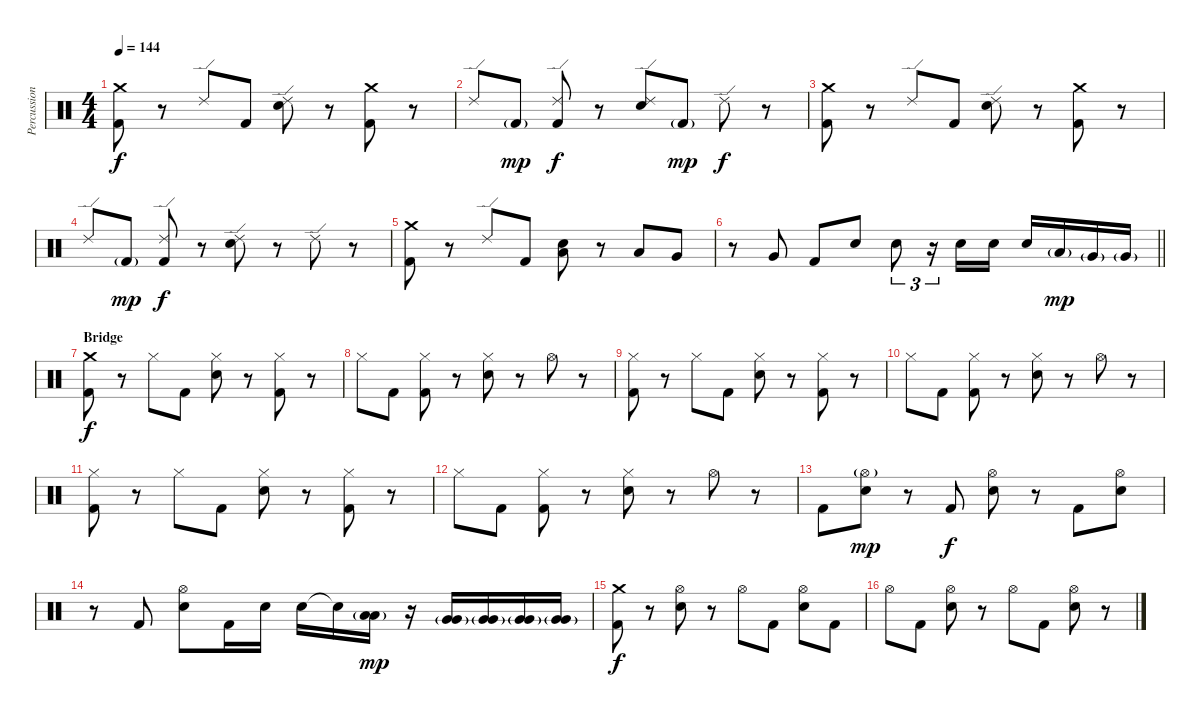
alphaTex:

\track ("Percussion" "Percussion") {instrument percussion}
\staff {score}
\articulation defaults
\ts (4 4)
\tempo 144
\clef neutral
\ks c
("Crash medium (hit)" "Kick (hit) 2").8{dy f} r.8 "Ride (edge) 2".8 "Kick (hit) 2".8 ("Ride (edge) 2" "Electric Snare (hit)").8 r.8 ("Crash medium (hit)" "Kick (hit) 2").8 r.8 |
"Ride (edge) 2".8 "Kick (hit) 2"{g}.8{dy mp} ("Ride (edge) 2" "Kick (hit) 2").8{dy f} r.8 ("Ride (edge) 2" "Electric Snare (hit)").8 "Kick (hit) 2"{g}.8{dy mp} "Ride (edge) 2".8{dy f} r.8 |
("Crash medium (hit)" "Kick (hit) 2").8 r.8 "Ride (edge) 2".8 "Kick (hit) 2".8 ("Ride (edge) 2" "Electric Snare (hit)").8 r.8 ("Crash medium (hit)" "Kick (hit) 2").8 r.8 |
"Ride (edge) 2".8 "Kick (hit) 2"{g}.8{dy mp} ("Ride (edge) 2" "Kick (hit) 2").8{dy f} r.8 ("Ride (edge) 2" "Electric Snare (hit)").8 r.8 "Ride (edge) 2".8 r.8 |
("Crash medium (hit)" "Kick (hit) 2").8 r.8 "Ride (edge) 2".8 "Kick (hit) 2".8 ("Low Floor Tom (hit)" "Electric Snare (hit)").8 r.8 "Low Tom (hit)".8 "Very Low Tom (hit)".8 |
\barLineRight lightlight
r.8 "Very Low Tom (hit)".8 "Kick (hit) 2".8 "Electric Snare (hit)".8 "Electric Snare (hit)".8{tu (3 2)} r.16{tu (3 2)} "Electric Snare (hit)".16 "Electric Snare (hit)".16 "Electric Snare (hit)".16 "Low Tom (hit)"{g}.16{dy mp} "Very Low Tom (hit)"{g}.16 "Very Low Tom (hit)"{g}.16 |
\section ("" "Bridge")
("Crash medium (hit)" "Kick (hit) 2").8{dy f} r.8 "Hi-Hat (closed)".8 "Kick (hit) 2".8 ("Hi-Hat (closed)" "Electric Snare (hit)").8 r.8 ("Hi-Hat (closed)" "Kick (hit) 2").8 r.8 |
"Hi-Hat (closed)".8 "Kick (hit) 2".8 ("Hi-Hat (closed)" "Kick (hit) 2").8 r.8 ("Hi-Hat (closed)" "Electric Snare (hit)").8 r.8 "Hi-Hat (open)".8 r.8 |
("Hi-Hat (closed)" "Kick (hit) 2").8 r.8 "Hi-Hat (closed)".8 "Kick (hit) 2".8 ("Hi-Hat (closed)" "Electric Snare (hit)").8 r.8 ("Hi-Hat (closed)" "Kick (hit) 2").8 r.8 |
"Hi-Hat (closed)".8 "Kick (hit) 2".8 ("Hi-Hat (closed)" "Kick (hit) 2").8 r.8 ("Hi-Hat (closed)" "Electric Snare (hit)").8 r.8 "Hi-Hat (open)".8 r.8 |
("Hi-Hat (closed)" "Kick (hit) 2").8 r.8 "Hi-Hat (closed)".8 "Kick (hit) 2".8 ("Hi-Hat (closed)" "Electric Snare (hit)").8 r.8 ("Hi-Hat (closed)" "Kick (hit) 2").8 r.8 |
"Hi-Hat (closed)".8 "Kick (hit) 2".8 ("Hi-Hat (closed)" "Kick (hit) 2").8 r.8 ("Hi-Hat (closed)" "Electric Snare (hit)").8 r.8 "Hi-Hat (open)".8 r.8 |
"Kick (hit) 2".8 ("Hi-Hat (open)"{g} "Electric Snare (hit)").8{dy mp} r.8 "Kick (hit) 2".8{dy f} ("Hi-Hat (open)" "Electric Snare (hit)").8 r.8 "Kick (hit) 2".8 ("Hi-Hat (open)" "Electric Snare (hit)").8 |
r.8 "Kick (hit) 2".8 ("Hi-Hat (open)" "Electric Snare (hit)").8 "Kick (hit) 2".16 "Electric Snare (hit)".16 "Electric Snare (hit)".16 "Snare (hit)"{t}.16 ("Low Tom (hit)"{g} "Low Tom (hit)").16{dy mp} r.16 ("Very Low Tom (hit)"{g} "Very Low Tom (hit)").16 ("Very Low Tom (hit)"{g} "Very Low Tom (hit)").16 ("Very Low Tom (hit)"{g} "Very Low Tom (hit)").16 ("Very Low Tom (hit)"{g} "Very Low Tom (hit)").16 |
("Crash medium (hit)" "Kick (hit) 2").8{dy f} r.8 ("Hi-Hat (open)" "Electric Snare (hit)").8 r.8 "Hi-Hat (open)".8 "Kick (hit) 2".8 ("Hi-Hat (open)" "Electric Snare (hit)").8 "Kick (hit) 2".8 |
"Hi-Hat (open)".8 "Kick (hit) 2".8 ("Hi-Hat (open)" "Electric Snare (hit)").8 r.8 "Hi-Hat (open)".8 "Kick (hit) 2".8 ("Hi-Hat (open)" "Electric Snare (hit)").8 r.8
